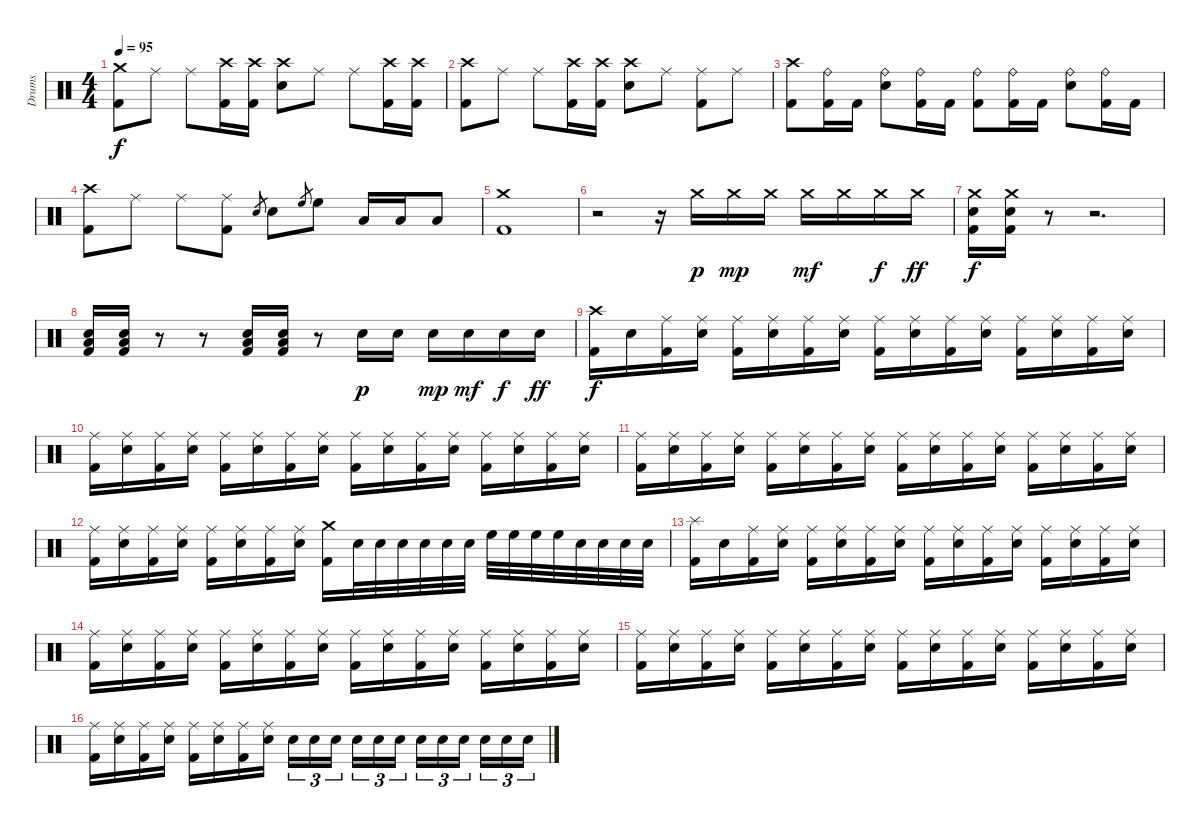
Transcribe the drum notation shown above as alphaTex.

\track ("Drums" "Drums") {instrument percussion}
\staff {score}
\articulation defaults
\ts (4 4)
\tempo 95
\clef neutral
\ks c
("Crash medium (hit)" "Kick (hit) 2").8{dy f} "Ride (middle)".8 "Ride (middle)".8 ("Crash high (hit)" "Kick (hit) 2").16 ("Crash high (hit)" "Kick (hit) 2").16 ("Crash high (hit)" "Electric Snare (hit)").8 "Ride (middle)".8 "Ride (middle)".8 ("Crash high (hit)" "Kick (hit) 2").16 ("Crash high (hit)" "Kick (hit) 2").16 |
("Crash high (hit)" "Kick (hit) 2").8 "Ride (middle)".8 "Ride (middle)".8 ("Crash high (hit)" "Kick (hit) 2").16 ("Crash high (hit)" "Kick (hit) 2").16 ("Crash high (hit)" "Electric Snare (hit)").8 "Ride (middle)".8 ("Ride (middle)" "Kick (hit) 2").8 "Ride (middle)".8 |
("Crash high (hit)" "Kick (hit) 2").8 ("Ride (bell)" "Kick (hit) 2").16 "Kick (hit) 2".16 ("Ride (bell)" "Electric Snare (hit)").8 ("Ride (bell)" "Kick (hit) 2").16 "Kick (hit) 2".16 ("Ride (bell)" "Kick (hit) 2").8 ("Ride (bell)" "Kick (hit) 2").16 "Kick (hit) 2".16 ("Ride (bell)" "Electric Snare (hit)").8 ("Ride (bell)" "Kick (hit) 2").16 "Kick (hit) 2".16 |
("Crash high (hit)" "Kick (hit) 2").8 "Ride (middle)".8 "Ride (middle)".8 ("Ride (middle)" "Kick (hit) 2").8 "Electric Snare (hit)".8{gr} "Electric Snare (hit)".8 "High Floor Tom (hit)".8{gr} "High Floor Tom (hit)".8 "Low Tom (hit)".16 "Low Tom (hit)".16 "Low Floor Tom (hit)".8 |
("Crash medium (hit)" "Kick (hit) 2").1 |
r.2 r.16 "Crash medium (hit)".16{dy p} "Crash medium (hit)".16{dy mp} "Crash medium (hit)".16 "Crash medium (hit)".16{dy mf} "Crash medium (hit)".16 "Crash medium (hit)".16{dy f} "Crash medium (hit)".16{dy ff} |
("Crash medium (hit)" "Electric Snare (hit)" "Kick (hit) 2").16{dy f} ("Crash medium (hit)" "Electric Snare (hit)" "Kick (hit) 2").16 r.8 r.2{d} |
("Low Floor Tom (hit)" "Electric Snare (hit)" "Kick (hit) 2").16 ("Low Floor Tom (hit)" "Electric Snare (hit)" "Kick (hit) 2").16 r.8 r.8 ("Low Floor Tom (hit)" "Electric Snare (hit)" "Kick (hit) 2").16 ("Low Floor Tom (hit)" "Electric Snare (hit)" "Kick (hit) 2").16 r.8 "Electric Snare (hit)".16{dy p} "Electric Snare (hit)".16 "Electric Snare (hit)".16{dy mp} "Electric Snare (hit)".16{dy mf} "Electric Snare (hit)".16{dy f} "Electric Snare (hit)".16{dy ff} |
("Crash high (hit)" "Kick (hit) 2").16{dy f} "Electric Snare (hit)".16 ("Ride (middle)" "Kick (hit) 2").16 ("Ride (middle)" "Electric Snare (hit)").16 ("Ride (middle)" "Kick (hit) 2").16 ("Ride (middle)" "Electric Snare (hit)").16 ("Ride (middle)" "Kick (hit) 2").16 ("Ride (middle)" "Electric Snare (hit)").16 ("Ride (middle)" "Kick (hit) 2").16 ("Ride (middle)" "Electric Snare (hit)").16 ("Ride (middle)" "Kick (hit) 2").16 ("Ride (middle)" "Electric Snare (hit)").16 ("Ride (middle)" "Kick (hit) 2").16 ("Ride (middle)" "Electric Snare (hit)").16 ("Ride (middle)" "Kick (hit) 2").16 ("Ride (middle)" "Electric Snare (hit)").16 |
("Ride (middle)" "Kick (hit) 2").16 ("Ride (middle)" "Electric Snare (hit)").16 ("Ride (middle)" "Kick (hit) 2").16 ("Ride (middle)" "Electric Snare (hit)").16 ("Ride (middle)" "Kick (hit) 2").16 ("Ride (middle)" "Electric Snare (hit)").16 ("Ride (middle)" "Kick (hit) 2").16 ("Ride (middle)" "Electric Snare (hit)").16 ("Ride (middle)" "Kick (hit) 2").16 ("Ride (middle)" "Electric Snare (hit)").16 ("Ride (middle)" "Kick (hit) 2").16 ("Ride (middle)" "Electric Snare (hit)").16 ("Ride (middle)" "Kick (hit) 2").16 ("Ride (middle)" "Electric Snare (hit)").16 ("Ride (middle)" "Kick (hit) 2").16 ("Ride (middle)" "Electric Snare (hit)").16 |
("Ride (middle)" "Kick (hit) 2").16 ("Ride (middle)" "Electric Snare (hit)").16 ("Ride (middle)" "Kick (hit) 2").16 ("Ride (middle)" "Electric Snare (hit)").16 ("Ride (middle)" "Kick (hit) 2").16 ("Ride (middle)" "Electric Snare (hit)").16 ("Ride (middle)" "Kick (hit) 2").16 ("Ride (middle)" "Electric Snare (hit)").16 ("Ride (middle)" "Kick (hit) 2").16 ("Ride (middle)" "Electric Snare (hit)").16 ("Ride (middle)" "Kick (hit) 2").16 ("Ride (middle)" "Electric Snare (hit)").16 ("Ride (middle)" "Kick (hit) 2").16 ("Ride (middle)" "Electric Snare (hit)").16 ("Ride (middle)" "Kick (hit) 2").16 ("Ride (middle)" "Electric Snare (hit)").16 |
("Ride (middle)" "Kick (hit) 2").16 ("Ride (middle)" "Electric Snare (hit)").16 ("Ride (middle)" "Kick (hit) 2").16 ("Ride (middle)" "Electric Snare (hit)").16 ("Ride (middle)" "Kick (hit) 2").16 ("Ride (middle)" "Electric Snare (hit)").16 ("Ride (middle)" "Kick (hit) 2").16 ("Ride (middle)" "Electric Snare (hit)").16 ("Crash medium (hit)" "Kick (hit) 2").16 "Electric Snare (hit)".32 "Electric Snare (hit)".32 "Electric Snare (hit)".32 "Electric Snare (hit)".32 "Electric Snare (hit)".32 "Electric Snare (hit)".32 "High Floor Tom (hit)".32 "High Floor Tom (hit)".32 "High Floor Tom (hit)".32 "High Floor Tom (hit)".32 "Electric Snare (hit)".32 "Electric Snare (hit)".32 "Electric Snare (hit)".32 "Electric Snare (hit)".32 |
("Splash (hit)" "Kick (hit) 2").16 "Electric Snare (hit)".16 ("Ride (middle)" "Kick (hit) 2").16 ("Ride (middle)" "Electric Snare (hit)").16 ("Ride (middle)" "Kick (hit) 2").16 ("Ride (middle)" "Electric Snare (hit)").16 ("Ride (middle)" "Kick (hit) 2").16 ("Ride (middle)" "Electric Snare (hit)").16 ("Ride (middle)" "Kick (hit) 2").16 ("Ride (middle)" "Electric Snare (hit)").16 ("Ride (middle)" "Kick (hit) 2").16 ("Ride (middle)" "Electric Snare (hit)").16 ("Ride (middle)" "Kick (hit) 2").16 ("Ride (middle)" "Electric Snare (hit)").16 ("Ride (middle)" "Kick (hit) 2").16 ("Ride (middle)" "Electric Snare (hit)").16 |
("Ride (middle)" "Kick (hit) 2").16 ("Ride (middle)" "Electric Snare (hit)").16 ("Ride (middle)" "Kick (hit) 2").16 ("Ride (middle)" "Electric Snare (hit)").16 ("Ride (middle)" "Kick (hit) 2").16 ("Ride (middle)" "Electric Snare (hit)").16 ("Ride (middle)" "Kick (hit) 2").16 ("Ride (middle)" "Electric Snare (hit)").16 ("Ride (middle)" "Kick (hit) 2").16 ("Ride (middle)" "Electric Snare (hit)").16 ("Ride (middle)" "Kick (hit) 2").16 ("Ride (middle)" "Electric Snare (hit)").16 ("Ride (middle)" "Kick (hit) 2").16 ("Ride (middle)" "Electric Snare (hit)").16 ("Ride (middle)" "Kick (hit) 2").16 ("Ride (middle)" "Electric Snare (hit)").16 |
("Ride (middle)" "Kick (hit) 2").16 ("Ride (middle)" "Electric Snare (hit)").16 ("Ride (middle)" "Kick (hit) 2").16 ("Ride (middle)" "Electric Snare (hit)").16 ("Ride (middle)" "Kick (hit) 2").16 ("Ride (middle)" "Electric Snare (hit)").16 ("Ride (middle)" "Kick (hit) 2").16 ("Ride (middle)" "Electric Snare (hit)").16 ("Ride (middle)" "Kick (hit) 2").16 ("Ride (middle)" "Electric Snare (hit)").16 ("Ride (middle)" "Kick (hit) 2").16 ("Ride (middle)" "Electric Snare (hit)").16 ("Ride (middle)" "Kick (hit) 2").16 ("Ride (middle)" "Electric Snare (hit)").16 ("Ride (middle)" "Kick (hit) 2").16 ("Ride (middle)" "Electric Snare (hit)").16 |
("Ride (middle)" "Kick (hit) 2").16 ("Ride (middle)" "Electric Snare (hit)").16 ("Ride (middle)" "Kick (hit) 2").16 ("Ride (middle)" "Electric Snare (hit)").16 ("Ride (middle)" "Kick (hit) 2").16 ("Ride (middle)" "Electric Snare (hit)").16 ("Ride (middle)" "Kick (hit) 2").16 ("Ride (middle)" "Electric Snare (hit)").16 "Electric Snare (hit)".16{tu (3 2)} "Electric Snare (hit)".16{tu (3 2)} "Electric Snare (hit)".16{tu (3 2)} "Electric Snare (hit)".16{tu (3 2)} "Electric Snare (hit)".16{tu (3 2)} "Electric Snare (hit)".16{tu (3 2)} "Electric Snare (hit)".16{tu (3 2)} "Electric Snare (hit)".16{tu (3 2)} "Electric Snare (hit)".16{tu (3 2)} "Electric Snare (hit)".16{tu (3 2)} "Electric Snare (hit)".16{tu (3 2)} "Electric Snare (hit)".16{tu (3 2)}
